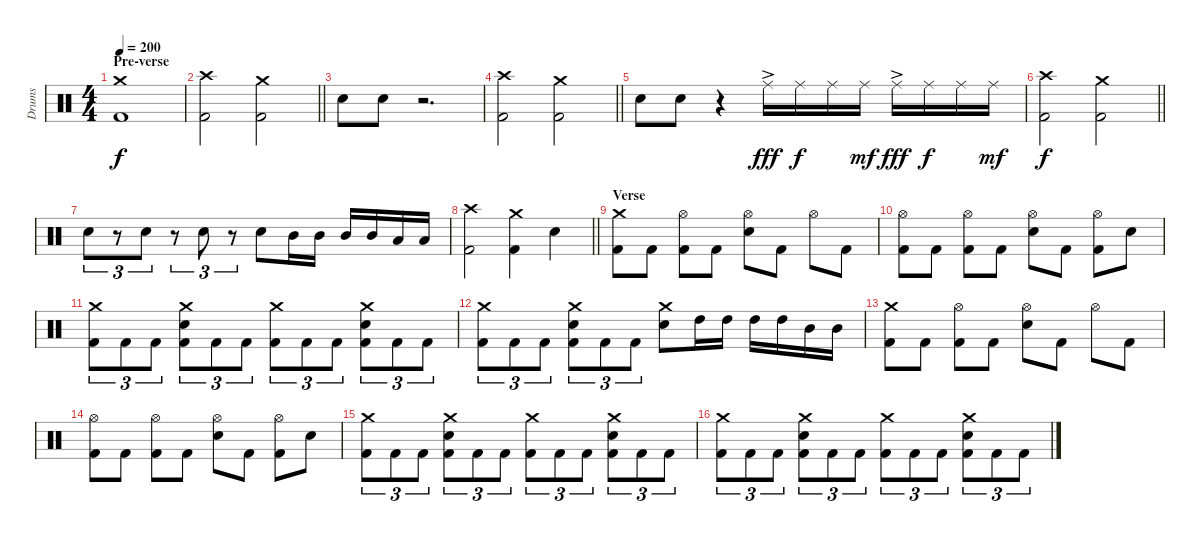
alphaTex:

\track ("Drums" "Drums") {instrument percussion}
\staff {score}
\articulation defaults
\ts (4 4)
\section ("" "Pre-verse")
\tempo 200
\clef neutral
\ks c
("Crash medium (hit)" "Kick (hit) 2").1{dy f} |
\barLineRight lightlight
("Crash high (hit)" "Kick (hit) 2").2 ("Crash medium (hit)" "Kick (hit) 2").2 |
"Electric Snare (hit)".8 "Electric Snare (hit)".8 r.2{d} |
\barLineRight lightlight
("Crash high (hit)" "Kick (hit) 2").2 ("Crash medium (hit)" "Kick (hit) 2").2 |
"Electric Snare (hit)".8 "Electric Snare (hit)".8 r.4 "Ride (middle)"{ac}.16{dy fff} "Ride (middle)".16{dy f} "Ride (middle)".16 "Ride (middle)".16{dy mf} "Ride (middle)"{ac}.16{dy fff} "Ride (middle)".16{dy f} "Ride (middle)".16 "Ride (middle)".16{dy mf} |
\barLineRight lightlight
("Crash high (hit)" "Kick (hit) 2").2{dy f} ("Crash medium (hit)" "Kick (hit) 2").2 |
"Electric Snare (hit)".8{tu (3 2)} r.8{tu (3 2)} "Electric Snare (hit)".8{tu (3 2)} r.8{tu (3 2)} "Electric Snare (hit)".8{tu (3 2)} r.8{tu (3 2)} "Electric Snare (hit)".8 "Mid Tom (hit)".16 "Mid Tom (hit)".16 "Mid Tom (hit)".16 "Mid Tom (hit)".16 "Low Tom (hit)".16 "Low Tom (hit)".16 |
\barLineRight lightlight
("Crash high (hit)" "Kick (hit) 2").2 ("Crash medium (hit)" "Kick (hit) 2").4 "Electric Snare (hit)".4 |
\section ("" "Verse")
("Crash medium (hit)" "Kick (hit) 2").8 "Kick (hit) 2".8 ("Hi-Hat (open)" "Kick (hit) 2").8 "Kick (hit) 2".8 ("Hi-Hat (open)" "Electric Snare (hit)").8 "Kick (hit) 2".8 "Hi-Hat (open)".8 "Kick (hit) 2".8 |
("Hi-Hat (open)" "Kick (hit) 2").8 "Kick (hit) 2".8 ("Hi-Hat (open)" "Kick (hit) 2").8 "Kick (hit) 2".8 ("Hi-Hat (open)" "Electric Snare (hit)").8 "Kick (hit) 2".8 ("Hi-Hat (open)" "Kick (hit) 2").8 "Electric Snare (hit)".8 |
("Crash medium (hit)" "Kick (hit) 2").8{tu (3 2)} "Kick (hit) 2".8{tu (3 2)} "Kick (hit) 2".8{tu (3 2)} ("Crash medium (hit)" "Electric Snare (hit)" "Kick (hit) 2").8{tu (3 2)} "Kick (hit) 2".8{tu (3 2)} "Kick (hit) 2".8{tu (3 2)} ("Crash medium (hit)" "Kick (hit) 2").8{tu (3 2)} "Kick (hit) 2".8{tu (3 2)} "Kick (hit) 2".8{tu (3 2)} ("Crash medium (hit)" "Electric Snare (hit)" "Kick (hit) 2").8{tu (3 2)} "Kick (hit) 2".8{tu (3 2)} "Kick (hit) 2".8{tu (3 2)} |
("Crash medium (hit)" "Kick (hit) 2").8{tu (3 2)} "Kick (hit) 2".8{tu (3 2)} "Kick (hit) 2".8{tu (3 2)} ("Crash medium (hit)" "Electric Snare (hit)" "Kick (hit) 2").8{tu (3 2)} "Kick (hit) 2".8{tu (3 2)} "Kick (hit) 2".8{tu (3 2)} ("Crash medium (hit)" "Electric Snare (hit)").8 "High Tom (hit)".16 "High Tom (hit)".16 "High Tom (hit)".16 "High Tom (hit)".16 "Mid Tom (hit)".16 "Mid Tom (hit)".16 |
("Crash medium (hit)" "Kick (hit) 2").8 "Kick (hit) 2".8 ("Hi-Hat (open)" "Kick (hit) 2").8 "Kick (hit) 2".8 ("Hi-Hat (open)" "Electric Snare (hit)").8 "Kick (hit) 2".8 "Hi-Hat (open)".8 "Kick (hit) 2".8 |
("Hi-Hat (open)" "Kick (hit) 2").8 "Kick (hit) 2".8 ("Hi-Hat (open)" "Kick (hit) 2").8 "Kick (hit) 2".8 ("Hi-Hat (open)" "Electric Snare (hit)").8 "Kick (hit) 2".8 ("Hi-Hat (open)" "Kick (hit) 2").8 "Electric Snare (hit)".8 |
("Crash medium (hit)" "Kick (hit) 2").8{tu (3 2)} "Kick (hit) 2".8{tu (3 2)} "Kick (hit) 2".8{tu (3 2)} ("Crash medium (hit)" "Electric Snare (hit)" "Kick (hit) 2").8{tu (3 2)} "Kick (hit) 2".8{tu (3 2)} "Kick (hit) 2".8{tu (3 2)} ("Crash medium (hit)" "Kick (hit) 2").8{tu (3 2)} "Kick (hit) 2".8{tu (3 2)} "Kick (hit) 2".8{tu (3 2)} ("Crash medium (hit)" "Electric Snare (hit)" "Kick (hit) 2").8{tu (3 2)} "Kick (hit) 2".8{tu (3 2)} "Kick (hit) 2".8{tu (3 2)} |
("Crash medium (hit)" "Kick (hit) 2").8{tu (3 2)} "Kick (hit) 2".8{tu (3 2)} "Kick (hit) 2".8{tu (3 2)} ("Crash medium (hit)" "Electric Snare (hit)" "Kick (hit) 2").8{tu (3 2)} "Kick (hit) 2".8{tu (3 2)} "Kick (hit) 2".8{tu (3 2)} ("Crash medium (hit)" "Kick (hit) 2").8{tu (3 2)} "Kick (hit) 2".8{tu (3 2)} "Kick (hit) 2".8{tu (3 2)} ("Crash medium (hit)" "Electric Snare (hit)" "Kick (hit) 2").8{tu (3 2)} "Kick (hit) 2".8{tu (3 2)} "Kick (hit) 2".8{tu (3 2)}
